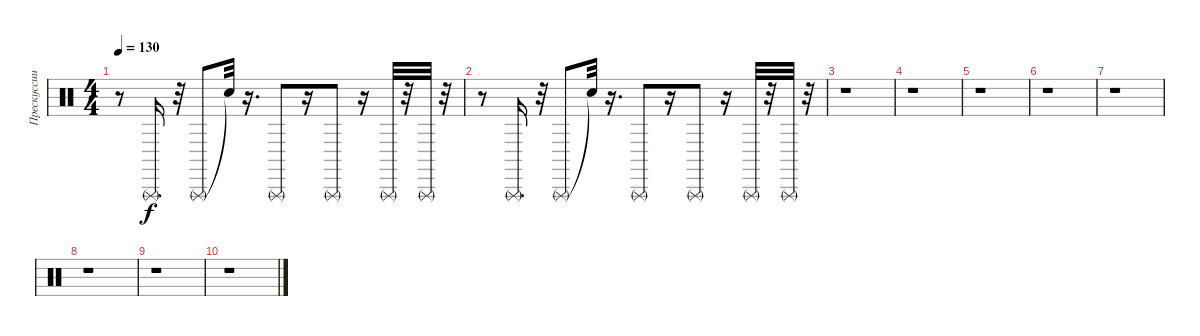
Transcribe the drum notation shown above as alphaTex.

\track ("Прескуссии 1" "Прескуссии") {instrument percussion}
\staff {score}
\articulation defaults
\ts (4 4)
\tempo 130
\clef neutral
\ks c
r.8{dy f} "Triangle (rnute)".16{d} r.32 "Triangle (rnute)".8 "Snare (hit)"{t}.32 r.16{d} "Triangle (rnute)".8 r.16 "Triangle (rnute)".8 r.16 "Triangle (rnute)".32 r.32 "Triangle (rnute)".32 r.32 |
r.8 "Triangle (rnute)".16{d} r.32 "Triangle (rnute)".8 "Snare (hit)"{t}.32 r.16{d} "Triangle (rnute)".8 r.16 "Triangle (rnute)".8 r.16 "Triangle (rnute)".32 r.32 "Triangle (rnute)".32 r.32 |
r.1 |
r.1 |
r.1 |
r.1 |
r.1 |
r.1 |
r.1 |
r.1
